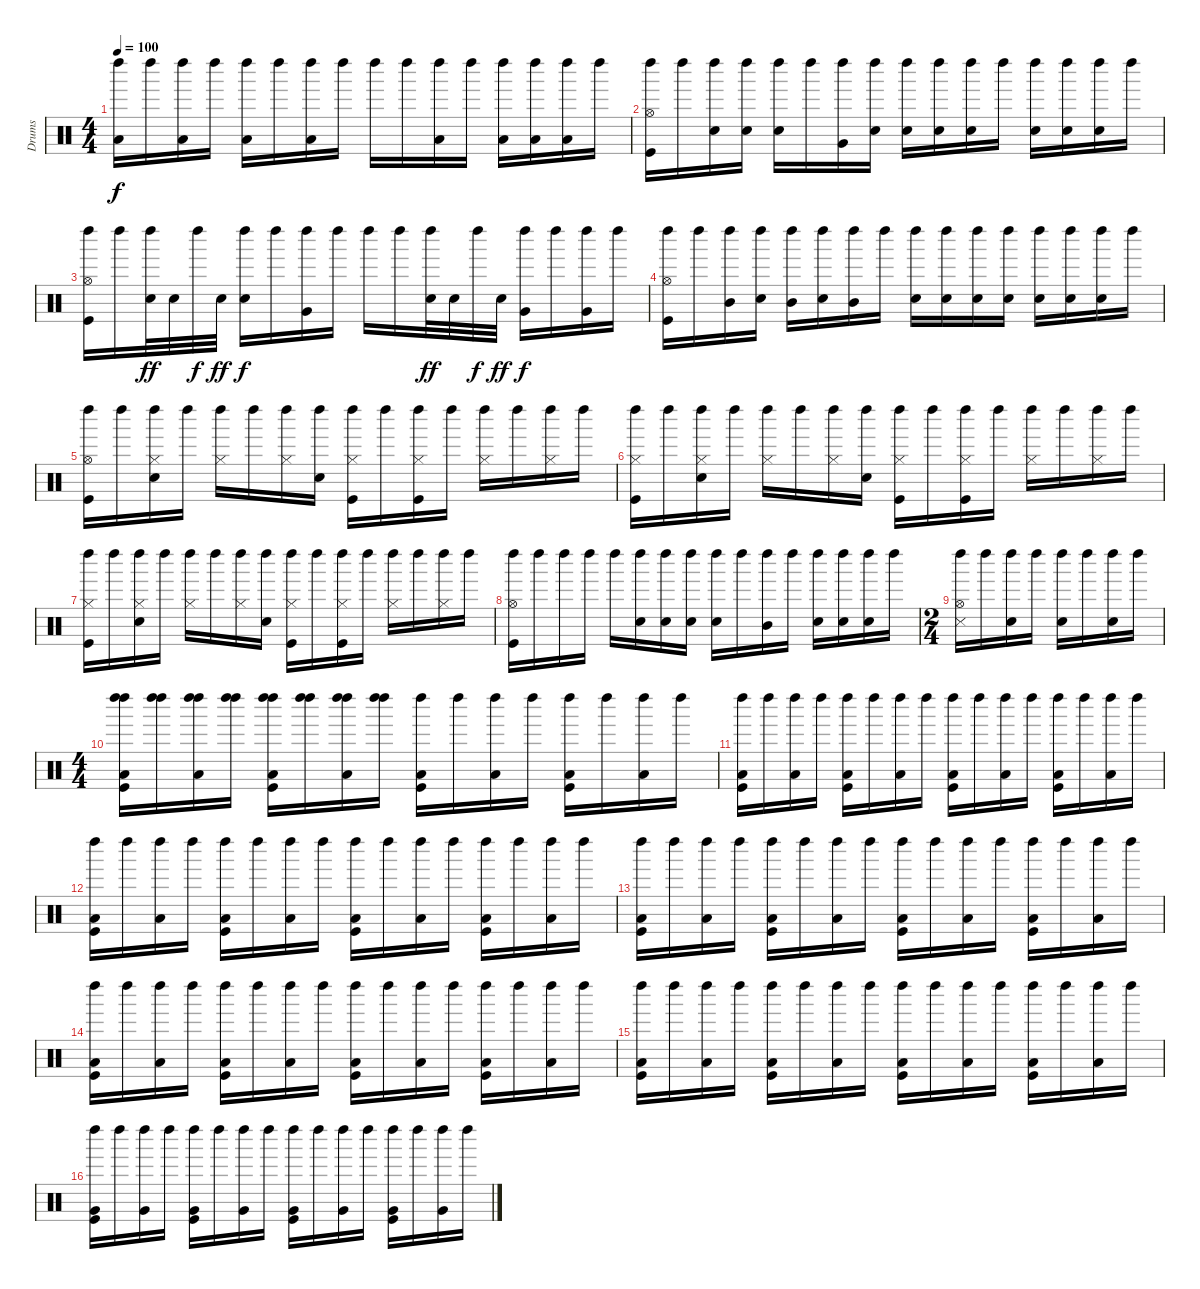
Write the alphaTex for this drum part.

\track ("Drums" "Drums") {instrument percussion}
\staff {score}
\articulation defaults
\ts (4 4)
\tempo 100
\clef neutral
\ks c
("Low Floor Tom (hit)" "Left Maraca (hit)").16{dy f} "Left Maraca (hit)".16 ("Low Floor Tom (hit)" "Left Maraca (hit)").16 "Left Maraca (hit)".16 ("Low Floor Tom (hit)" "Left Maraca (hit)").16 "Left Maraca (hit)".16 ("Low Floor Tom (hit)" "Left Maraca (hit)").16 "Left Maraca (hit)".16 "Left Maraca (hit)".16 "Left Maraca (hit)".16 ("Low Floor Tom (hit)" "Left Maraca (hit)").16 "Left Maraca (hit)".16 ("Low Floor Tom (hit)" "Left Maraca (hit)").16 ("Low Floor Tom (hit)" "Left Maraca (hit)").16 ("Low Floor Tom (hit)" "Left Maraca (hit)").16 "Left Maraca (hit)".16 |
("Hi-Hat (open)" "Kick (hit)" "Left Maraca (hit)").16 "Left Maraca (hit)".16 ("Electric Snare (hit)" "Left Maraca (hit)").16 ("Electric Snare (hit)" "Left Maraca (hit)").16 ("Electric Snare (hit)" "Left Maraca (hit)").16 "Left Maraca (hit)".16 ("Very Low Tom (hit)" "Left Maraca (hit)").16 ("Electric Snare (hit)" "Left Maraca (hit)").16 ("Electric Snare (hit)" "Left Maraca (hit)").16 ("Electric Snare (hit)" "Left Maraca (hit)").16 ("Electric Snare (hit)" "Left Maraca (hit)").16 "Left Maraca (hit)".16 ("Electric Snare (hit)" "Left Maraca (hit)").16 ("Electric Snare (hit)" "Left Maraca (hit)").16 ("Electric Snare (hit)" "Left Maraca (hit)").16 "Left Maraca (hit)".16 |
("Hi-Hat (open)" "Kick (hit)" "Left Maraca (hit)").16 "Left Maraca (hit)".16 ("Electric Snare (hit)" "Left Maraca (hit)").32{dy ff} "Electric Snare (hit)".32 "Left Maraca (hit)".32{dy f} "Electric Snare (hit)".32{dy ff} ("Electric Snare (hit)" "Left Maraca (hit)").16{dy f} "Left Maraca (hit)".16 ("Very Low Tom (hit)" "Left Maraca (hit)").16 "Left Maraca (hit)".16 "Left Maraca (hit)".16 "Left Maraca (hit)".16 ("Electric Snare (hit)" "Left Maraca (hit)").32{dy ff} "Electric Snare (hit)".32 "Left Maraca (hit)".32{dy f} "Electric Snare (hit)".32{dy ff} ("Very Low Tom (hit)" "Left Maraca (hit)").16{dy f} "Left Maraca (hit)".16 ("Very Low Tom (hit)" "Left Maraca (hit)").16 "Left Maraca (hit)".16 |
("Kick (hit)" "Hi-Hat (open)" "Left Maraca (hit)").16 "Left Maraca (hit)".16 ("Mid Tom (hit)" "Left Maraca (hit)").16 ("Electric Snare (hit)" "Left Maraca (hit)").16 ("Mid Tom (hit)" "Left Maraca (hit)").16 ("Electric Snare (hit)" "Left Maraca (hit)").16 ("Mid Tom (hit)" "Left Maraca (hit)").16 "Left Maraca (hit)".16 ("Electric Snare (hit)" "Left Maraca (hit)").16 ("Electric Snare (hit)" "Left Maraca (hit)").16 ("Electric Snare (hit)" "Left Maraca (hit)").16 ("Electric Snare (hit)" "Left Maraca (hit)").16 ("Electric Snare (hit)" "Left Maraca (hit)").16 ("Electric Snare (hit)" "Left Maraca (hit)").16 ("Electric Snare (hit)" "Left Maraca (hit)").16 "Left Maraca (hit)".16 |
("Hi-Hat (open)" "Kick (hit)" "Left Maraca (hit)").16 "Left Maraca (hit)".16 ("Hi-Hat (closed)" "Electric Snare (hit)" "Left Maraca (hit)").16 "Left Maraca (hit)".16 ("Hi-Hat (closed)" "Left Maraca (hit)").16 "Left Maraca (hit)".16 ("Hi-Hat (closed)" "Left Maraca (hit)").16 ("Electric Snare (hit)" "Left Maraca (hit)").16 ("Hi-Hat (closed)" "Kick (hit)" "Left Maraca (hit)").16 "Left Maraca (hit)".16 ("Hi-Hat (closed)" "Kick (hit)" "Left Maraca (hit)").16 "Left Maraca (hit)".16 ("Hi-Hat (closed)" "Left Maraca (hit)").16 "Left Maraca (hit)".16 ("Hi-Hat (closed)" "Left Maraca (hit)").16 "Left Maraca (hit)".16 |
("Kick (hit)" "Hi-Hat (closed)" "Left Maraca (hit)").16 "Left Maraca (hit)".16 ("Hi-Hat (closed)" "Electric Snare (hit)" "Left Maraca (hit)").16 "Left Maraca (hit)".16 ("Hi-Hat (closed)" "Left Maraca (hit)").16 "Left Maraca (hit)".16 ("Hi-Hat (closed)" "Left Maraca (hit)").16 ("Electric Snare (hit)" "Left Maraca (hit)").16 ("Hi-Hat (closed)" "Kick (hit)" "Left Maraca (hit)").16 "Left Maraca (hit)".16 ("Hi-Hat (closed)" "Kick (hit)" "Left Maraca (hit)").16 "Left Maraca (hit)".16 ("Hi-Hat (closed)" "Left Maraca (hit)").16 "Left Maraca (hit)".16 ("Hi-Hat (closed)" "Left Maraca (hit)").16 "Left Maraca (hit)".16 |
("Hi-Hat (closed)" "Kick (hit)" "Left Maraca (hit)").16 "Left Maraca (hit)".16 ("Hi-Hat (closed)" "Electric Snare (hit)" "Left Maraca (hit)").16 "Left Maraca (hit)".16 ("Hi-Hat (closed)" "Left Maraca (hit)").16 "Left Maraca (hit)".16 ("Hi-Hat (closed)" "Left Maraca (hit)").16 ("Electric Snare (hit)" "Left Maraca (hit)").16 ("Hi-Hat (closed)" "Kick (hit)" "Left Maraca (hit)").16 "Left Maraca (hit)".16 ("Hi-Hat (closed)" "Kick (hit)" "Left Maraca (hit)").16 "Left Maraca (hit)".16 ("Hi-Hat (closed)" "Left Maraca (hit)").16 "Left Maraca (hit)".16 ("Hi-Hat (closed)" "Left Maraca (hit)").16 "Left Maraca (hit)".16 |
("Hi-Hat (open)" "Kick (hit)" "Left Maraca (hit)").16 "Left Maraca (hit)".16 "Left Maraca (hit)".16 "Left Maraca (hit)".16 "Left Maraca (hit)".16 ("Electric Snare (hit)" "Left Maraca (hit)").16 ("Electric Snare (hit)" "Left Maraca (hit)").16 ("Electric Snare (hit)" "Left Maraca (hit)").16 ("Electric Snare (hit)" "Left Maraca (hit)").16 "Left Maraca (hit)".16 ("Mid Tom (hit)" "Left Maraca (hit)").16 "Left Maraca (hit)".16 ("Electric Snare (hit)" "Left Maraca (hit)").16 ("Electric Snare (hit)" "Left Maraca (hit)").16 ("Electric Snare (hit)" "Left Maraca (hit)").16 "Left Maraca (hit)".16 |
\ts (2 4)
("Hi-Hat (open)" "Metronome (hit)" "Left Maraca (hit)").16 "Left Maraca (hit)".16 ("Electric Snare (hit)" "Left Maraca (hit)").16 "Left Maraca (hit)".16 ("Electric Snare (hit)" "Left Maraca (hit)").16 "Left Maraca (hit)".16 ("Electric Snare (hit)" "Left Maraca (hit)").16 "Left Maraca (hit)".16 |
\ts (4 4)
("Kick (hit)" "Low Floor Tom (hit)" "Left Maraca (hit)" "Left Maraca (hit)").16 ("Left Maraca (hit)" "Left Maraca (hit)").16 ("Low Floor Tom (hit)" "Left Maraca (hit)" "Left Maraca (hit)").16 ("Left Maraca (hit)" "Left Maraca (hit)").16 ("Kick (hit)" "Low Floor Tom (hit)" "Left Maraca (hit)" "Left Maraca (hit)").16 ("Left Maraca (hit)" "Left Maraca (hit)").16 ("Low Floor Tom (hit)" "Left Maraca (hit)" "Left Maraca (hit)").16 ("Left Maraca (hit)" "Left Maraca (hit)").16 ("Kick (hit)" "Low Floor Tom (hit)" "Left Maraca (hit)").16 "Left Maraca (hit)".16 ("Low Floor Tom (hit)" "Left Maraca (hit)").16 "Left Maraca (hit)".16 ("Kick (hit)" "Low Floor Tom (hit)" "Left Maraca (hit)").16 "Left Maraca (hit)".16 ("Low Floor Tom (hit)" "Left Maraca (hit)").16 "Left Maraca (hit)".16 |
("Kick (hit)" "Low Floor Tom (hit)" "Left Maraca (hit)").16 "Left Maraca (hit)".16 ("Low Floor Tom (hit)" "Left Maraca (hit)").16 "Left Maraca (hit)".16 ("Kick (hit)" "Low Floor Tom (hit)" "Left Maraca (hit)").16 "Left Maraca (hit)".16 ("Low Floor Tom (hit)" "Left Maraca (hit)").16 "Left Maraca (hit)".16 ("Kick (hit)" "Low Floor Tom (hit)" "Left Maraca (hit)").16 "Left Maraca (hit)".16 ("Low Floor Tom (hit)" "Left Maraca (hit)").16 "Left Maraca (hit)".16 ("Kick (hit)" "Low Floor Tom (hit)" "Left Maraca (hit)").16 "Left Maraca (hit)".16 ("Low Floor Tom (hit)" "Left Maraca (hit)").16 "Left Maraca (hit)".16 |
("Kick (hit)" "Low Floor Tom (hit)" "Left Maraca (hit)").16 "Left Maraca (hit)".16 ("Low Floor Tom (hit)" "Left Maraca (hit)").16 "Left Maraca (hit)".16 ("Kick (hit)" "Low Floor Tom (hit)" "Left Maraca (hit)").16 "Left Maraca (hit)".16 ("Low Floor Tom (hit)" "Left Maraca (hit)").16 "Left Maraca (hit)".16 ("Kick (hit)" "Low Floor Tom (hit)" "Left Maraca (hit)").16 "Left Maraca (hit)".16 ("Low Floor Tom (hit)" "Left Maraca (hit)").16 "Left Maraca (hit)".16 ("Kick (hit)" "Low Floor Tom (hit)" "Left Maraca (hit)").16 "Left Maraca (hit)".16 ("Low Floor Tom (hit)" "Left Maraca (hit)").16 "Left Maraca (hit)".16 |
("Kick (hit)" "Low Floor Tom (hit)" "Left Maraca (hit)").16 "Left Maraca (hit)".16 ("Low Floor Tom (hit)" "Left Maraca (hit)").16 "Left Maraca (hit)".16 ("Kick (hit)" "Low Floor Tom (hit)" "Left Maraca (hit)").16 "Left Maraca (hit)".16 ("Low Floor Tom (hit)" "Left Maraca (hit)").16 "Left Maraca (hit)".16 ("Kick (hit)" "Low Floor Tom (hit)" "Left Maraca (hit)").16 "Left Maraca (hit)".16 ("Low Floor Tom (hit)" "Left Maraca (hit)").16 "Left Maraca (hit)".16 ("Kick (hit)" "Low Floor Tom (hit)" "Left Maraca (hit)").16 "Left Maraca (hit)".16 ("Low Floor Tom (hit)" "Left Maraca (hit)").16 "Left Maraca (hit)".16 |
("Kick (hit)" "Low Floor Tom (hit)" "Left Maraca (hit)").16 "Left Maraca (hit)".16 ("Low Floor Tom (hit)" "Left Maraca (hit)").16 "Left Maraca (hit)".16 ("Kick (hit)" "Low Floor Tom (hit)" "Left Maraca (hit)").16 "Left Maraca (hit)".16 ("Low Floor Tom (hit)" "Left Maraca (hit)").16 "Left Maraca (hit)".16 ("Kick (hit)" "Low Floor Tom (hit)" "Left Maraca (hit)").16 "Left Maraca (hit)".16 ("Low Floor Tom (hit)" "Left Maraca (hit)").16 "Left Maraca (hit)".16 ("Kick (hit)" "Low Floor Tom (hit)" "Left Maraca (hit)").16 "Left Maraca (hit)".16 ("Low Floor Tom (hit)" "Left Maraca (hit)").16 "Left Maraca (hit)".16 |
("Kick (hit)" "Low Floor Tom (hit)" "Left Maraca (hit)").16 "Left Maraca (hit)".16 ("Low Floor Tom (hit)" "Left Maraca (hit)").16 "Left Maraca (hit)".16 ("Kick (hit)" "Low Floor Tom (hit)" "Left Maraca (hit)").16 "Left Maraca (hit)".16 ("Low Floor Tom (hit)" "Left Maraca (hit)").16 "Left Maraca (hit)".16 ("Kick (hit)" "Low Floor Tom (hit)" "Left Maraca (hit)").16 "Left Maraca (hit)".16 ("Low Floor Tom (hit)" "Left Maraca (hit)").16 "Left Maraca (hit)".16 ("Kick (hit)" "Low Floor Tom (hit)" "Left Maraca (hit)").16 "Left Maraca (hit)".16 ("Low Floor Tom (hit)" "Left Maraca (hit)").16 "Left Maraca (hit)".16 |
("Kick (hit)" "Very Low Tom (hit)" "Left Maraca (hit)").16 "Left Maraca (hit)".16 ("Very Low Tom (hit)" "Left Maraca (hit)").16 "Left Maraca (hit)".16 ("Kick (hit)" "Very Low Tom (hit)" "Left Maraca (hit)").16 "Left Maraca (hit)".16 ("Very Low Tom (hit)" "Left Maraca (hit)").16 "Left Maraca (hit)".16 ("Kick (hit)" "Very Low Tom (hit)" "Left Maraca (hit)").16 "Left Maraca (hit)".16 ("Very Low Tom (hit)" "Left Maraca (hit)").16 "Left Maraca (hit)".16 ("Kick (hit)" "Very Low Tom (hit)" "Left Maraca (hit)").16 "Left Maraca (hit)".16 ("Very Low Tom (hit)" "Left Maraca (hit)").16 "Left Maraca (hit)".16
